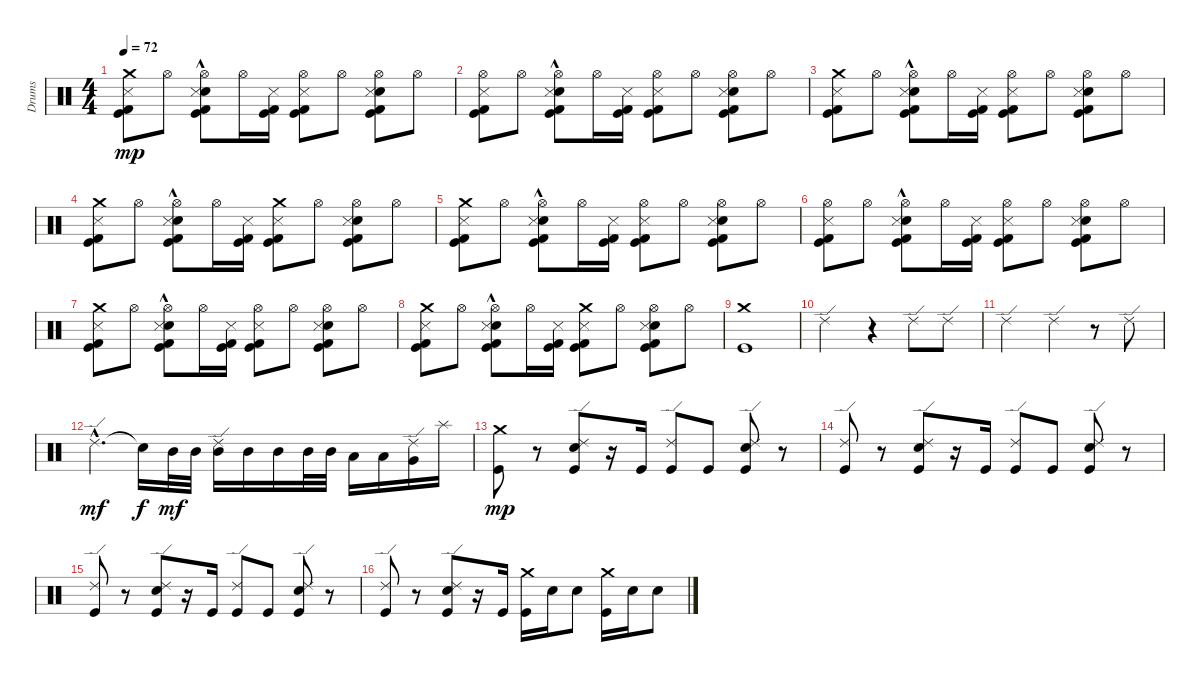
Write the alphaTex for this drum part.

\track ("Drums" "Drums") {instrument percussion}
\staff {score}
\articulation defaults
\ts (4 4)
\tempo 72
\clef neutral
\ks c
("Crash medium (hit)" "Metronome (hit)" "Kick (hit)" "Kick (hit) 2").8{dy mp} "Hi-Hat (open)".8 ("Snare (hit) 2" "Hi-Hat (open)" "Metronome (hit)"{hac} "Kick (hit)"{hac} "Kick (hit) 2"{hac}).8 "Hi-Hat (open)".16 ("Metronome (hit)" "Kick (hit)" "Kick (hit) 2").16 ("Hi-Hat (open)" "Metronome (hit)" "Kick (hit)" "Kick (hit) 2").8 "Hi-Hat (open)".8 ("Snare (hit) 2" "Hi-Hat (open)" "Metronome (hit)" "Kick (hit)" "Kick (hit) 2").8 "Hi-Hat (open)".8 |
("Hi-Hat (open)" "Metronome (hit)" "Kick (hit)" "Kick (hit) 2").8 "Hi-Hat (open)".8 ("Snare (hit) 2" "Hi-Hat (open)" "Metronome (hit)"{hac} "Kick (hit)"{hac} "Kick (hit) 2"{hac}).8 "Hi-Hat (open)".16 ("Metronome (hit)" "Kick (hit)" "Kick (hit) 2").16 ("Hi-Hat (open)" "Metronome (hit)" "Kick (hit)" "Kick (hit) 2").8 "Hi-Hat (open)".8 ("Snare (hit) 2" "Hi-Hat (open)" "Metronome (hit)" "Kick (hit)" "Kick (hit) 2").8 "Hi-Hat (open)".8 |
("Crash medium (hit)" "Metronome (hit)" "Kick (hit)" "Kick (hit) 2").8 "Hi-Hat (open)".8 ("Snare (hit) 2" "Hi-Hat (open)" "Metronome (hit)"{hac} "Kick (hit)"{hac} "Kick (hit) 2"{hac}).8 "Hi-Hat (open)".16 ("Metronome (hit)" "Kick (hit)" "Kick (hit) 2").16 ("Hi-Hat (open)" "Metronome (hit)" "Kick (hit)" "Kick (hit) 2").8 "Hi-Hat (open)".8 ("Snare (hit) 2" "Hi-Hat (open)" "Metronome (hit)" "Kick (hit)" "Kick (hit) 2").8 "Hi-Hat (open)".8 |
("Crash medium (hit)" "Metronome (hit)" "Kick (hit)" "Kick (hit) 2").8 "Hi-Hat (open)".8 ("Snare (hit) 2" "Hi-Hat (open)" "Metronome (hit)"{hac} "Kick (hit)"{hac} "Kick (hit) 2"{hac}).8 "Hi-Hat (open)".16 ("Metronome (hit)" "Kick (hit)" "Kick (hit) 2").16 ("Crash medium (hit)" "Metronome (hit)" "Kick (hit)" "Kick (hit) 2").8 "Hi-Hat (open)".8 ("Snare (hit) 2" "Hi-Hat (open)" "Metronome (hit)" "Kick (hit)" "Kick (hit) 2").8 "Hi-Hat (open)".8 |
("Crash medium (hit)" "Metronome (hit)" "Kick (hit)" "Kick (hit) 2").8 "Hi-Hat (open)".8 ("Snare (hit) 2" "Hi-Hat (open)" "Metronome (hit)"{hac} "Kick (hit)"{hac} "Kick (hit) 2"{hac}).8 "Hi-Hat (open)".16 ("Metronome (hit)" "Kick (hit)" "Kick (hit) 2").16 ("Hi-Hat (open)" "Metronome (hit)" "Kick (hit)" "Kick (hit) 2").8 "Hi-Hat (open)".8 ("Snare (hit) 2" "Hi-Hat (open)" "Metronome (hit)" "Kick (hit)" "Kick (hit) 2").8 "Hi-Hat (open)".8 |
("Hi-Hat (open)" "Metronome (hit)" "Kick (hit)" "Kick (hit) 2").8 "Hi-Hat (open)".8 ("Snare (hit) 2" "Hi-Hat (open)" "Metronome (hit)"{hac} "Kick (hit)"{hac} "Kick (hit) 2"{hac}).8 "Hi-Hat (open)".16 ("Metronome (hit)" "Kick (hit)" "Kick (hit) 2").16 ("Hi-Hat (open)" "Metronome (hit)" "Kick (hit)" "Kick (hit) 2").8 "Hi-Hat (open)".8 ("Snare (hit) 2" "Hi-Hat (open)" "Metronome (hit)" "Kick (hit)" "Kick (hit) 2").8 "Hi-Hat (open)".8 |
("Crash medium (hit)" "Metronome (hit)" "Kick (hit)" "Kick (hit) 2").8 "Hi-Hat (open)".8 ("Snare (hit) 2" "Hi-Hat (open)" "Metronome (hit)"{hac} "Kick (hit)"{hac} "Kick (hit) 2"{hac}).8 "Hi-Hat (open)".16 ("Metronome (hit)" "Kick (hit)" "Kick (hit) 2").16 ("Hi-Hat (open)" "Metronome (hit)" "Kick (hit)" "Kick (hit) 2").8 "Hi-Hat (open)".8 ("Snare (hit) 2" "Hi-Hat (open)" "Metronome (hit)" "Kick (hit)" "Kick (hit) 2").8 "Hi-Hat (open)".8 |
("Crash medium (hit)" "Metronome (hit)" "Kick (hit)" "Kick (hit) 2").8 "Hi-Hat (open)".8 ("Snare (hit) 2" "Hi-Hat (open)" "Metronome (hit)"{hac} "Kick (hit)"{hac} "Kick (hit) 2"{hac}).8 "Hi-Hat (open)".16 ("Metronome (hit)" "Kick (hit)" "Kick (hit) 2").16 ("Crash medium (hit)" "Metronome (hit)" "Kick (hit)" "Kick (hit) 2").8 "Hi-Hat (open)".8 ("Snare (hit) 2" "Hi-Hat (open)" "Metronome (hit)" "Kick (hit)" "Kick (hit) 2").8 "Hi-Hat (open)".8 |
("Kick (hit)" "Crash medium (hit)").1 |
"Ride (edge) 2".2 r.4 "Ride (edge) 2".8 "Ride (edge) 2".8 |
"Ride (edge) 2".2 "Ride (edge) 2".4 r.8 "Ride (edge) 2".8 |
"Ride (edge) 2"{hac}.4{d dy mf} "Snare (hit)"{t}.16{dy f} "Mid Tom (hit)".32{dy mf} "Mid Tom (hit)".32 ("Mid Tom (hit)" "Ride (edge) 2").16 "Mid Tom (hit)".16 "Mid Tom (hit)".16 "Mid Tom (hit)".32 "Mid Tom (hit)".32 "Low Tom (hit)".16 "Low Tom (hit)".16 ("Very Low Tom (hit)" "Ride (edge) 2").16 "Splash (hit)".16 |
("Kick (hit)" "Crash medium (hit)").8{dy mp} r.8 ("Kick (hit)" "Snare (hit) 2" "Ride (edge) 2").8 r.16 "Kick (hit)".16 ("Kick (hit)" "Ride (edge) 2").8 "Kick (hit)".8 ("Kick (hit)" "Snare (hit) 2" "Ride (edge) 2").8 r.8 |
("Kick (hit)" "Ride (edge) 2").8 r.8 ("Kick (hit)" "Snare (hit) 2" "Ride (edge) 2").8 r.16 "Kick (hit)".16 ("Kick (hit)" "Ride (edge) 2").8 "Kick (hit)".8 ("Kick (hit)" "Snare (hit) 2" "Ride (edge) 2").8 r.8 |
("Kick (hit)" "Ride (edge) 2").8 r.8 ("Kick (hit)" "Snare (hit) 2" "Ride (edge) 2").8 r.16 "Kick (hit)".16 ("Kick (hit)" "Ride (edge) 2").8 "Kick (hit)".8 ("Kick (hit)" "Snare (hit) 2" "Ride (edge) 2").8 r.8 |
("Kick (hit)" "Ride (edge) 2").8 r.8 ("Kick (hit)" "Snare (hit) 2" "Ride (edge) 2").8 r.16 "Kick (hit)".16 ("Kick (hit)" "Crash medium (hit)").16 "Snare (hit) 2".16 "Snare (hit) 2".8 ("Kick (hit)" "Crash medium (hit)").16 "Snare (hit) 2".16 "Snare (hit) 2".8
